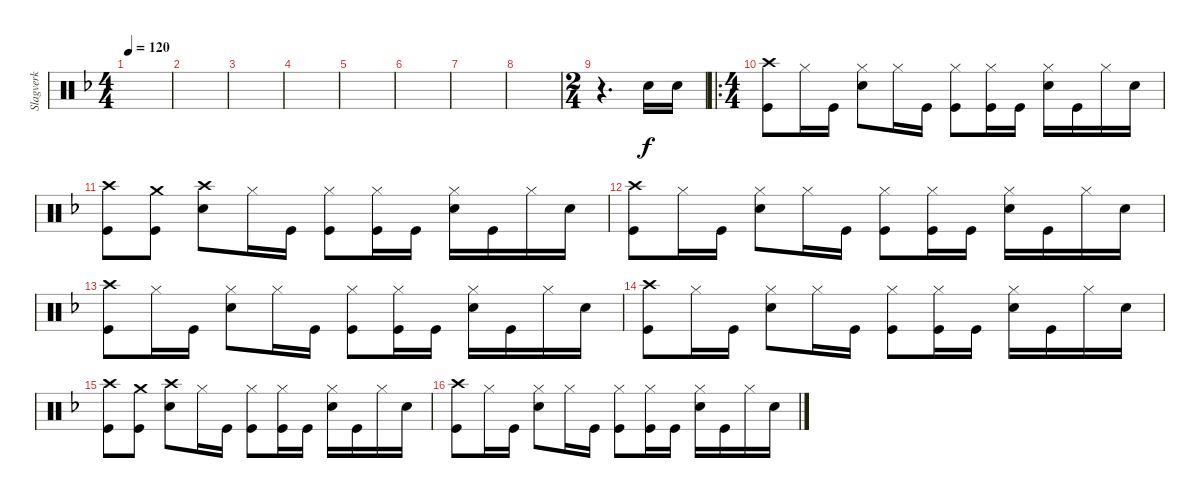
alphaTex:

\track ("Slagverk" "Slagverk") {instrument percussion}
\staff {score}
\articulation defaults
\ts (4 4)
\tempo 120
\clef neutral
\ks dminor
|
|
|
|
|
|
|
|
\ts (2 4)
r.4{d} "Snare (hit) 2".16 "Snare (hit) 2".16 |
\ro
\ts (4 4)
("Crash high (hit)" "Kick (hit)").8 "Hi-Hat (closed)".16 "Kick (hit)".16 ("Hi-Hat (closed)" "Snare (hit) 2").8 "Hi-Hat (closed)".16 "Kick (hit)".16 ("Hi-Hat (closed)" "Kick (hit)").8 ("Hi-Hat (closed)" "Kick (hit)").16 "Kick (hit)".16 ("Hi-Hat (closed)" "Snare (hit) 2").16 "Kick (hit)".16 "Hi-Hat (closed)".16 "Snare (hit) 2".16 |
("Crash high (hit)" "Kick (hit)").8 ("Crash medium (hit)" "Kick (hit)").8 ("Crash high (hit)" "Snare (hit) 2").8 "Hi-Hat (closed)".16 "Kick (hit)".16 ("Hi-Hat (closed)" "Kick (hit)").8 ("Hi-Hat (closed)" "Kick (hit)").16 "Kick (hit)".16 ("Hi-Hat (closed)" "Snare (hit) 2").16 "Kick (hit)".16 "Hi-Hat (closed)".16 "Snare (hit) 2".16 |
("Crash high (hit)" "Kick (hit)").8 "Hi-Hat (closed)".16 "Kick (hit)".16 ("Hi-Hat (closed)" "Snare (hit) 2").8 "Hi-Hat (closed)".16 "Kick (hit)".16 ("Hi-Hat (closed)" "Kick (hit)").8 ("Hi-Hat (closed)" "Kick (hit)").16 "Kick (hit)".16 ("Hi-Hat (closed)" "Snare (hit) 2").16 "Kick (hit)".16 "Hi-Hat (closed)".16 "Snare (hit) 2".16 |
("Crash high (hit)" "Kick (hit)").8 "Hi-Hat (closed)".16 "Kick (hit)".16 ("Hi-Hat (closed)" "Snare (hit) 2").8 "Hi-Hat (closed)".16 "Kick (hit)".16 ("Hi-Hat (closed)" "Kick (hit)").8 ("Hi-Hat (closed)" "Kick (hit)").16 "Kick (hit)".16 ("Hi-Hat (closed)" "Snare (hit) 2").16 "Kick (hit)".16 "Hi-Hat (closed)".16 "Snare (hit) 2".16 |
("Crash high (hit)" "Kick (hit)").8 "Hi-Hat (closed)".16 "Kick (hit)".16 ("Hi-Hat (closed)" "Snare (hit) 2").8 "Hi-Hat (closed)".16 "Kick (hit)".16 ("Hi-Hat (closed)" "Kick (hit)").8 ("Hi-Hat (closed)" "Kick (hit)").16 "Kick (hit)".16 ("Hi-Hat (closed)" "Snare (hit) 2").16 "Kick (hit)".16 "Hi-Hat (closed)".16 "Snare (hit) 2".16 |
("Crash high (hit)" "Kick (hit)").8 ("Crash medium (hit)" "Kick (hit)").8 ("Crash high (hit)" "Snare (hit) 2").8 "Hi-Hat (closed)".16 "Kick (hit)".16 ("Hi-Hat (closed)" "Kick (hit)").8 ("Hi-Hat (closed)" "Kick (hit)").16 "Kick (hit)".16 ("Hi-Hat (closed)" "Snare (hit) 2").16 "Kick (hit)".16 "Hi-Hat (closed)".16 "Snare (hit) 2".16 |
("Crash high (hit)" "Kick (hit)").8 "Hi-Hat (closed)".16 "Kick (hit)".16 ("Hi-Hat (closed)" "Snare (hit) 2").8 "Hi-Hat (closed)".16 "Kick (hit)".16 ("Hi-Hat (closed)" "Kick (hit)").8 ("Hi-Hat (closed)" "Kick (hit)").16 "Kick (hit)".16 ("Hi-Hat (closed)" "Snare (hit) 2").16 "Kick (hit)".16 "Hi-Hat (closed)".16 "Snare (hit) 2".16
